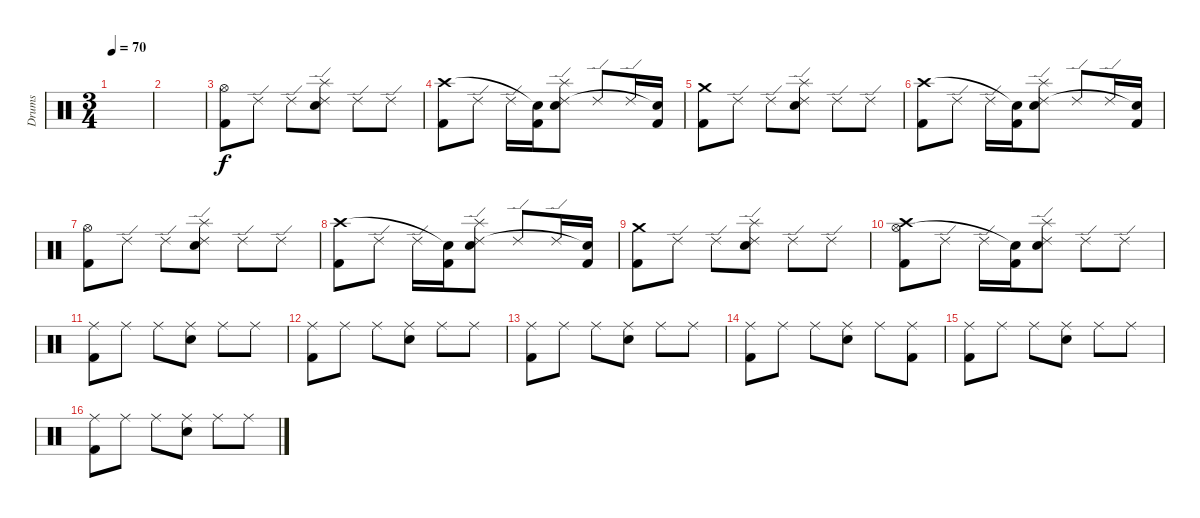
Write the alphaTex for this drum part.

\track ("Drums" "Drums") {instrument percussion}
\staff {score}
\articulation defaults
\ts (3 4)
\tempo 70
\clef neutral
\ks c
|
|
("Kick (hit) 2" "Hi-Hat (open)").8 "Ride (edge) 2".8 "Ride (edge) 2".8 ("Snare (hit) 2" "Ride (edge) 2" "Splash (hit)").8 "Ride (edge) 2".8 "Ride (edge) 2".8 |
("Kick (hit) 2" "Crash high (hit)").8 "Ride (edge) 2".8 "Ride (edge) 2".16 ("Kick (hit) 2" "Snare (hit)"{t}).16 ("Snare (hit) 2" "Ride (edge) 2" "Splash (hit)").8 "Ride (edge) 2".8 "Ride (edge) 2".16 ("Kick (hit) 2" "Snare (hit)"{t}).16 |
("Kick (hit) 2" "Crash medium (hit)").8 "Ride (edge) 2".8 "Ride (edge) 2".8 ("Snare (hit) 2" "Ride (edge) 2" "Splash (hit)").8 "Ride (edge) 2".8 "Ride (edge) 2".8 |
("Kick (hit) 2" "Crash high (hit)").8 "Ride (edge) 2".8 "Ride (edge) 2".16 ("Kick (hit) 2" "Snare (hit)"{t}).16 ("Snare (hit) 2" "Ride (edge) 2" "Splash (hit)").8 "Ride (edge) 2".8 "Ride (edge) 2".16 ("Kick (hit) 2" "Snare (hit)"{t}).16 |
("Kick (hit) 2" "Hi-Hat (open)").8 "Ride (edge) 2".8 "Ride (edge) 2".8 ("Snare (hit) 2" "Ride (edge) 2" "Splash (hit)").8 "Ride (edge) 2".8 "Ride (edge) 2".8 |
("Kick (hit) 2" "Crash high (hit)").8 "Ride (edge) 2".8 "Ride (edge) 2".16 ("Kick (hit) 2" "Snare (hit)"{t}).16 ("Snare (hit) 2" "Ride (edge) 2" "Splash (hit)").8 "Ride (edge) 2".8 "Ride (edge) 2".16 ("Kick (hit) 2" "Snare (hit)"{t}).16 |
("Kick (hit) 2" "Crash medium (hit)").8 "Ride (edge) 2".8 "Ride (edge) 2".8 ("Snare (hit) 2" "Ride (edge) 2" "Splash (hit)").8 "Ride (edge) 2".8 "Ride (edge) 2".8 |
("Kick (hit) 2" "Hi-Hat (open)" "Crash high (hit)").8 "Ride (edge) 2".8 "Ride (edge) 2".16 ("Kick (hit) 2" "Snare (hit)"{t}).16 ("Snare (hit) 2" "Ride (edge) 2" "Splash (hit)").8 "Ride (edge) 2".8 "Ride (edge) 2".8 |
("Kick (hit) 2" "Ride (middle)").8 "Ride (middle)".8 "Ride (middle)".8 ("Snare (hit) 2" "Ride (middle)").8 "Ride (middle)".8 "Ride (middle)".8 |
("Kick (hit) 2" "Ride (middle)").8 "Ride (middle)".8 "Ride (middle)".8 ("Snare (hit) 2" "Ride (middle)").8 "Ride (middle)".8 "Ride (middle)".8 |
("Kick (hit) 2" "Ride (middle)").8 "Ride (middle)".8 "Ride (middle)".8 ("Snare (hit) 2" "Ride (middle)").8 "Ride (middle)".8 "Ride (middle)".8 |
("Kick (hit) 2" "Ride (middle)").8 "Ride (middle)".8 "Ride (middle)".8 ("Snare (hit) 2" "Ride (middle)").8 "Ride (middle)".8 ("Kick (hit) 2" "Ride (middle)").8 |
("Kick (hit) 2" "Ride (middle)").8 "Ride (middle)".8 "Ride (middle)".8 ("Snare (hit) 2" "Ride (middle)").8 "Ride (middle)".8 "Ride (middle)".8 |
("Kick (hit) 2" "Ride (middle)").8 "Ride (middle)".8 "Ride (middle)".8 ("Snare (hit) 2" "Ride (middle)").8 "Ride (middle)".8 "Ride (middle)".8
